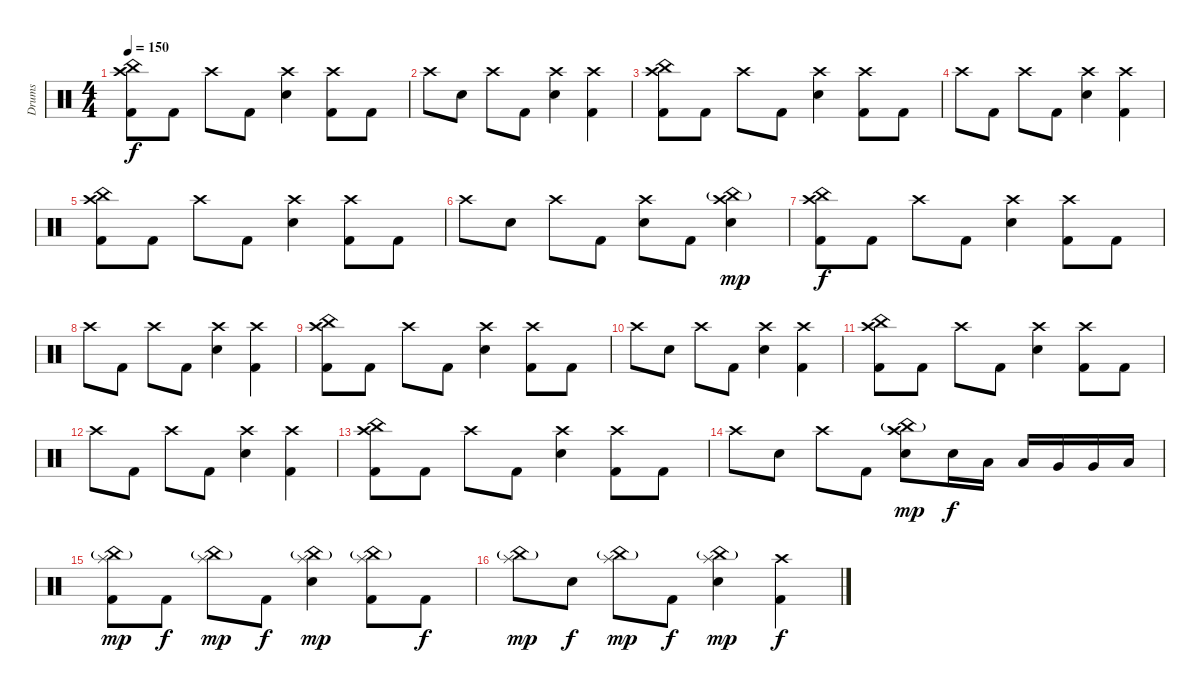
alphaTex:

\track ("Drums" "Drums") {instrument percussion}
\staff {score}
\articulation defaults
\ts (4 4)
\tempo 150
\clef neutral
\ks c
("Crash high (hit)" "China (hit)" "Kick (hit) 2").8{dy f} "Kick (hit) 2".8 "Crash high (hit)".8 "Kick (hit) 2".8 ("Crash high (hit)" "Electric Snare (hit)").4 ("Crash high (hit)" "Kick (hit) 2").8 "Kick (hit) 2".8 |
"Crash high (hit)".8 "Electric Snare (hit)".8 "Crash high (hit)".8 "Kick (hit) 2".8 ("Crash high (hit)" "Electric Snare (hit)").4 ("Kick (hit) 2" "Crash high (hit)").4 |
("Crash high (hit)" "China (hit)" "Kick (hit) 2").8 "Kick (hit) 2".8 "Crash high (hit)".8 "Kick (hit) 2".8 ("Crash high (hit)" "Electric Snare (hit)").4 ("Crash high (hit)" "Kick (hit) 2").8 "Kick (hit) 2".8 |
"Crash high (hit)".8 "Kick (hit) 2".8 "Crash high (hit)".8 "Kick (hit) 2".8 ("Crash high (hit)" "Electric Snare (hit)").4 ("Kick (hit) 2" "Crash high (hit)").4 |
("Crash high (hit)" "China (hit)" "Kick (hit) 2").8 "Kick (hit) 2".8 "Crash high (hit)".8 "Kick (hit) 2".8 ("Crash high (hit)" "Electric Snare (hit)").4 ("Crash high (hit)" "Kick (hit) 2").8 "Kick (hit) 2".8 |
"Crash high (hit)".8 "Electric Snare (hit)".8 "Crash high (hit)".8 "Kick (hit) 2".8 ("Crash high (hit)" "Electric Snare (hit)").8 "Kick (hit) 2".8 ("Crash high (hit)" "China (hit)"{g} "Electric Snare (hit)").4{dy mp} |
("Crash high (hit)" "China (hit)" "Kick (hit) 2").8{dy f} "Kick (hit) 2".8 "Crash high (hit)".8 "Kick (hit) 2".8 ("Crash high (hit)" "Electric Snare (hit)").4 ("Crash high (hit)" "Kick (hit) 2").8 "Kick (hit) 2".8 |
"Crash high (hit)".8 "Kick (hit) 2".8 "Crash high (hit)".8 "Kick (hit) 2".8 ("Crash high (hit)" "Electric Snare (hit)").4 ("Kick (hit) 2" "Crash high (hit)").4 |
("Crash high (hit)" "China (hit)" "Kick (hit) 2").8 "Kick (hit) 2".8 "Crash high (hit)".8 "Kick (hit) 2".8 ("Crash high (hit)" "Electric Snare (hit)").4 ("Crash high (hit)" "Kick (hit) 2").8 "Kick (hit) 2".8 |
"Crash high (hit)".8 "Electric Snare (hit)".8 "Crash high (hit)".8 "Kick (hit) 2".8 ("Crash high (hit)" "Electric Snare (hit)").4 ("Kick (hit) 2" "Crash high (hit)").4 |
("Crash high (hit)" "China (hit)" "Kick (hit) 2").8 "Kick (hit) 2".8 "Crash high (hit)".8 "Kick (hit) 2".8 ("Crash high (hit)" "Electric Snare (hit)").4 ("Crash high (hit)" "Kick (hit) 2").8 "Kick (hit) 2".8 |
"Crash high (hit)".8 "Kick (hit) 2".8 "Crash high (hit)".8 "Kick (hit) 2".8 ("Crash high (hit)" "Electric Snare (hit)").4 ("Kick (hit) 2" "Crash high (hit)").4 |
("Crash high (hit)" "China (hit)" "Kick (hit) 2").8 "Kick (hit) 2".8 "Crash high (hit)".8 "Kick (hit) 2".8 ("Crash high (hit)" "Electric Snare (hit)").4 ("Crash high (hit)" "Kick (hit) 2").8 "Kick (hit) 2".8 |
"Crash high (hit)".8 "Electric Snare (hit)".8 "Crash high (hit)".8 "Kick (hit) 2".8 ("Crash high (hit)" "China (hit)"{g} "Electric Snare (hit)").8{dy mp} "Electric Snare (hit)".16{dy f} "Low Tom (hit)".16 "Low Tom (hit)".16 "Very Low Tom (hit)".16 "Very Low Tom (hit)".16 "Low Floor Tom (hit)".16 |
("Splash (hit)" "China (hit)"{g} "Kick (hit) 2").8{dy mp} "Kick (hit) 2".8{dy f} ("Splash (hit)" "China (hit)"{g}).8{dy mp} "Kick (hit) 2".8{dy f} ("Splash (hit)" "China (hit)"{g} "Electric Snare (hit)").4{dy mp} ("Splash (hit)" "China (hit)"{g} "Kick (hit) 2").8 "Kick (hit) 2".8{dy f} |
("Splash (hit)" "China (hit)"{g}).8{dy mp} "Electric Snare (hit)".8{dy f} ("China (hit)"{g} "Splash (hit)").8{dy mp} "Kick (hit) 2".8{dy f} ("Splash (hit)" "China (hit)"{g} "Electric Snare (hit)").4{dy mp} ("Kick (hit) 2" "Crash high (hit)").4{dy f}
